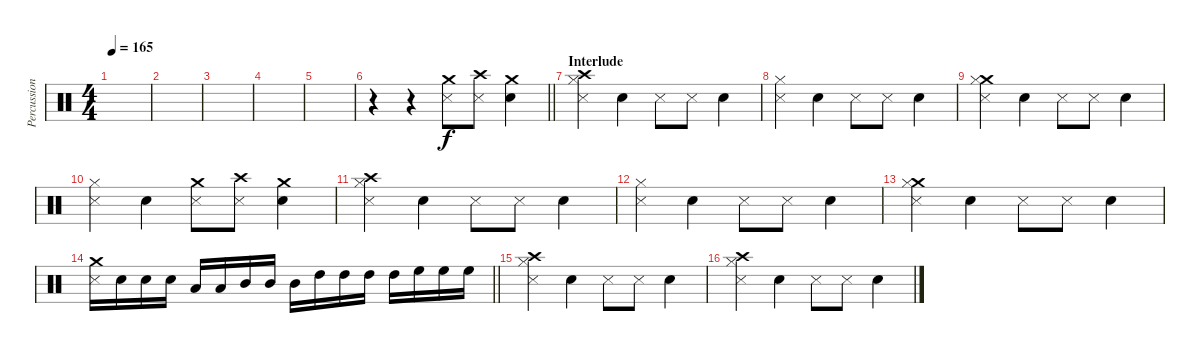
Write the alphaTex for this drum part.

\track ("Percussion" "Percussion") {instrument percussion}
\staff {score}
\articulation defaults
\ts (4 4)
\tempo 165
\clef neutral
\ks c
|
|
|
|
|
\barLineRight lightlight
r.4 r.4 ("Metronome (hit)" "Crash medium (hit)").8 ("Metronome (hit)" "Crash high (hit)").8 ("Crash medium (hit)" "Electric Snare (hit)").4 |
\section ("" "Interlude")
("Metronome (hit)" "Crash high (hit)" "Hi-Hat (closed)").4 "Electric Snare (hit)".4 "Metronome (hit)".8 "Metronome (hit)".8 "Electric Snare (hit)".4 |
("Metronome (hit)" "Hi-Hat (closed)").4 "Electric Snare (hit)".4 "Metronome (hit)".8 "Metronome (hit)".8 "Electric Snare (hit)".4 |
("Metronome (hit)" "Crash medium (hit)" "Hi-Hat (closed)").4 "Electric Snare (hit)".4 "Metronome (hit)".8 "Metronome (hit)".8 "Electric Snare (hit)".4 |
("Metronome (hit)" "Hi-Hat (closed)").4 "Electric Snare (hit)".4 ("Metronome (hit)" "Crash medium (hit)").8 ("Metronome (hit)" "Crash high (hit)").8 ("Crash medium (hit)" "Electric Snare (hit)").4 |
("Metronome (hit)" "Crash high (hit)" "Hi-Hat (closed)").4 "Electric Snare (hit)".4 "Metronome (hit)".8 "Metronome (hit)".8 "Electric Snare (hit)".4 |
("Metronome (hit)" "Hi-Hat (closed)").4 "Electric Snare (hit)".4 "Metronome (hit)".8 "Metronome (hit)".8 "Electric Snare (hit)".4 |
("Metronome (hit)" "Crash medium (hit)" "Hi-Hat (closed)").4 "Electric Snare (hit)".4 "Metronome (hit)".8 "Metronome (hit)".8 "Electric Snare (hit)".4 |
\barLineRight lightlight
("Metronome (hit)" "Crash medium (hit)").16 "Electric Snare (hit)".16 "Electric Snare (hit)".16 "Electric Snare (hit)".16 "Low Tom (hit)".16 "Low Tom (hit)".16 "Mid Tom (hit)".16 "Mid Tom (hit)".16 "Mid Tom (hit)".16 "High Tom (hit)".16 "High Tom (hit)".16 "High Tom (hit)".16 "High Tom (hit)".16 "High Floor Tom (hit)".16 "High Floor Tom (hit)".16 "High Floor Tom (hit)".16 |
("Metronome (hit)" "Crash high (hit)" "Hi-Hat (closed)").4 "Electric Snare (hit)".4 "Metronome (hit)".8 "Metronome (hit)".8 "Electric Snare (hit)".4 |
("Metronome (hit)" "Crash high (hit)" "Hi-Hat (closed)").4 "Electric Snare (hit)".4 "Metronome (hit)".8 "Metronome (hit)".8 "Electric Snare (hit)".4
